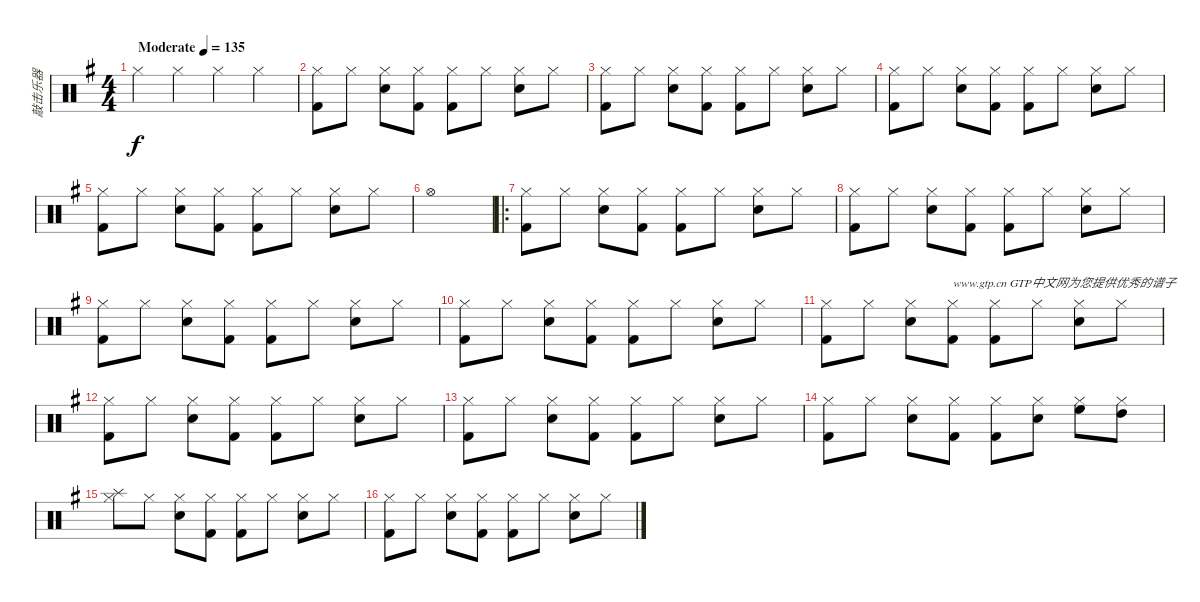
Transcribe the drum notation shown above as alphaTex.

\track ("敲击乐器" "敲击乐器") {instrument percussion}
\staff {score}
\articulation defaults
\ts (4 4)
\tempo (135 "Moderate")
\clef neutral
\ks g "Hi-Hat (closed)".4{dy f} "Hi-Hat (closed)".4 "Hi-Hat (closed)".4 "Hi-Hat (closed)".4
|
("Kick (hit) 2" "Hi-Hat (closed)").8 "Hi-Hat (closed)".8 ("Electric Snare (hit)" "Hi-Hat (closed)").8 ("Kick (hit) 2" "Hi-Hat (closed)").8 ("Kick (hit) 2" "Hi-Hat (closed)").8 "Hi-Hat (closed)".8 ("Electric Snare (hit)" "Hi-Hat (closed)").8 "Hi-Hat (closed)".8 |
("Kick (hit) 2" "Hi-Hat (closed)").8 "Hi-Hat (closed)".8 ("Electric Snare (hit)" "Hi-Hat (closed)").8 ("Kick (hit) 2" "Hi-Hat (closed)").8 ("Kick (hit) 2" "Hi-Hat (closed)").8 "Hi-Hat (closed)".8 ("Electric Snare (hit)" "Hi-Hat (closed)").8 "Hi-Hat (closed)".8 |
("Kick (hit) 2" "Hi-Hat (closed)").8 "Hi-Hat (closed)".8 ("Electric Snare (hit)" "Hi-Hat (closed)").8 ("Kick (hit) 2" "Hi-Hat (closed)").8 ("Kick (hit) 2" "Hi-Hat (closed)").8 "Hi-Hat (closed)".8 ("Electric Snare (hit)" "Hi-Hat (closed)").8 "Hi-Hat (closed)".8 |
("Kick (hit) 2" "Hi-Hat (closed)").8 "Hi-Hat (closed)".8 ("Electric Snare (hit)" "Hi-Hat (closed)").8 ("Kick (hit) 2" "Hi-Hat (closed)").8 ("Kick (hit) 2" "Hi-Hat (closed)").8 "Hi-Hat (closed)".8 ("Electric Snare (hit)" "Hi-Hat (closed)").8 "Hi-Hat (closed)".8 |
"Hi-Hat (open)".1 |
\ro
("Kick (hit) 2" "Hi-Hat (closed)").8 "Hi-Hat (closed)".8 ("Electric Snare (hit)" "Hi-Hat (closed)").8 ("Kick (hit) 2" "Hi-Hat (closed)").8 ("Kick (hit) 2" "Hi-Hat (closed)").8 "Hi-Hat (closed)".8 ("Electric Snare (hit)" "Hi-Hat (closed)").8 "Hi-Hat (closed)".8 |
("Kick (hit) 2" "Hi-Hat (closed)").8 "Hi-Hat (closed)".8 ("Electric Snare (hit)" "Hi-Hat (closed)").8 ("Kick (hit) 2" "Hi-Hat (closed)").8 ("Kick (hit) 2" "Hi-Hat (closed)").8 "Hi-Hat (closed)".8 ("Electric Snare (hit)" "Hi-Hat (closed)").8 "Hi-Hat (closed)".8 |
("Kick (hit) 2" "Hi-Hat (closed)").8 "Hi-Hat (closed)".8 ("Electric Snare (hit)" "Hi-Hat (closed)").8 ("Kick (hit) 2" "Hi-Hat (closed)").8 ("Kick (hit) 2" "Hi-Hat (closed)").8 "Hi-Hat (closed)".8 ("Electric Snare (hit)" "Hi-Hat (closed)").8 "Hi-Hat (closed)".8 |
("Kick (hit) 2" "Hi-Hat (closed)").8 "Hi-Hat (closed)".8 ("Electric Snare (hit)" "Hi-Hat (closed)").8 ("Kick (hit) 2" "Hi-Hat (closed)").8 ("Kick (hit) 2" "Hi-Hat (closed)").8 "Hi-Hat (closed)".8 ("Electric Snare (hit)" "Hi-Hat (closed)").8 "Hi-Hat (closed)".8 |
("Kick (hit) 2" "Hi-Hat (closed)").8 "Hi-Hat (closed)".8 ("Electric Snare (hit)" "Hi-Hat (closed)").8 ("Kick (hit) 2" "Hi-Hat (closed)").8{txt "www.gtp.cn GTP中文网为您提供优秀的谱子"} ("Kick (hit) 2" "Hi-Hat (closed)").8 "Hi-Hat (closed)".8 ("Electric Snare (hit)" "Hi-Hat (closed)").8 "Hi-Hat (closed)".8 |
("Kick (hit) 2" "Hi-Hat (closed)").8 "Hi-Hat (closed)".8 ("Electric Snare (hit)" "Hi-Hat (closed)").8 ("Kick (hit) 2" "Hi-Hat (closed)").8 ("Kick (hit) 2" "Hi-Hat (closed)").8 "Hi-Hat (closed)".8 ("Electric Snare (hit)" "Hi-Hat (closed)").8 "Hi-Hat (closed)".8 |
("Kick (hit) 2" "Hi-Hat (closed)").8 "Hi-Hat (closed)".8 ("Electric Snare (hit)" "Hi-Hat (closed)").8 ("Kick (hit) 2" "Hi-Hat (closed)").8 ("Kick (hit) 2" "Hi-Hat (closed)").8 "Hi-Hat (closed)".8 ("Electric Snare (hit)" "Hi-Hat (closed)").8 "Hi-Hat (closed)".8 |
("Kick (hit) 2" "Hi-Hat (closed)").8 "Hi-Hat (closed)".8 ("Electric Snare (hit)" "Hi-Hat (closed)").8 ("Kick (hit) 2" "Hi-Hat (closed)").8 ("Kick (hit) 2" "Hi-Hat (closed)").8 ("Hi-Hat (closed)" "Electric Snare (hit)").8 ("High Floor Tom (hit)" "Hi-Hat (closed)").8 ("Hi-Hat (closed)" "High Tom (hit)").8 |
("Splash (hit)" "Hi-Hat (closed)").8 "Hi-Hat (closed)".8 ("Electric Snare (hit)" "Hi-Hat (closed)").8 ("Kick (hit) 2" "Hi-Hat (closed)").8 ("Kick (hit) 2" "Hi-Hat (closed)").8 "Hi-Hat (closed)".8 ("Electric Snare (hit)" "Hi-Hat (closed)").8 "Hi-Hat (closed)".8 |
("Kick (hit) 2" "Hi-Hat (closed)").8 "Hi-Hat (closed)".8 ("Electric Snare (hit)" "Hi-Hat (closed)").8 ("Kick (hit) 2" "Hi-Hat (closed)").8 ("Kick (hit) 2" "Hi-Hat (closed)").8 "Hi-Hat (closed)".8 ("Electric Snare (hit)" "Hi-Hat (closed)").8 "Hi-Hat (closed)".8
